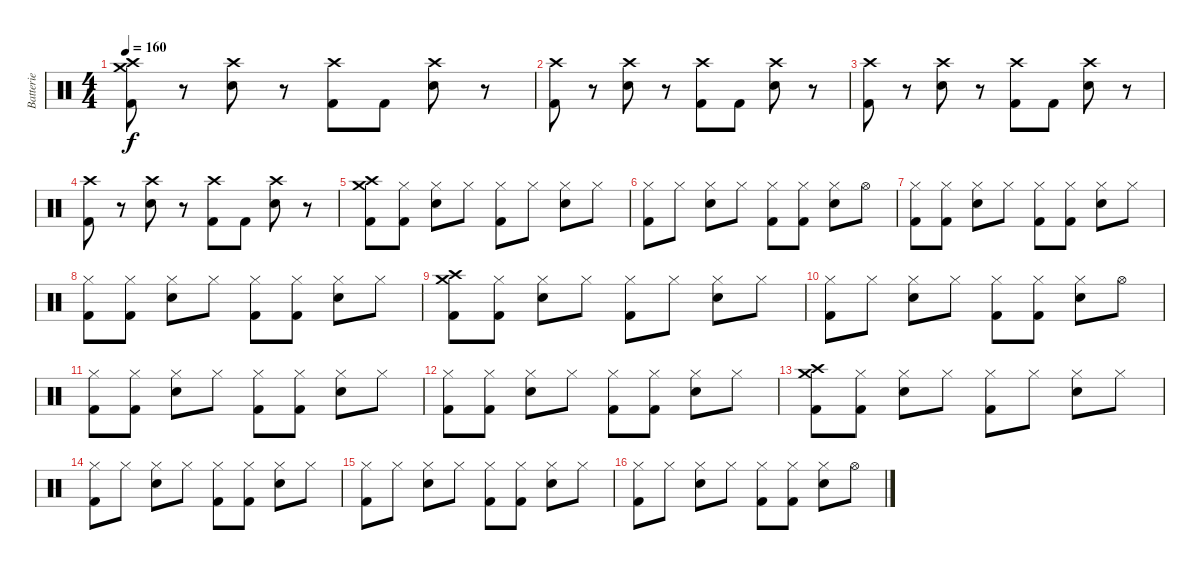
\track ("Batterie" "Batterie") {instrument percussion}
\staff {score}
\articulation defaults
\ts (4 4)
\tempo 160
\clef neutral
\ks c
("Crash high (hit)" "Crash medium (hit)" "Kick (hit) 2").8{dy f} r.8 ("Crash high (hit)" "Snare (hit) 2").8 r.8 ("Crash high (hit)" "Kick (hit) 2").8 "Kick (hit) 2".8 ("Crash high (hit)" "Snare (hit) 2").8 r.8 |
("Crash high (hit)" "Kick (hit) 2").8 r.8 ("Crash high (hit)" "Snare (hit) 2").8 r.8 ("Crash high (hit)" "Kick (hit) 2").8 "Kick (hit) 2".8 ("Crash high (hit)" "Snare (hit) 2").8 r.8 |
("Crash high (hit)" "Kick (hit) 2").8 r.8 ("Crash high (hit)" "Snare (hit) 2").8 r.8 ("Crash high (hit)" "Kick (hit) 2").8 "Kick (hit) 2".8 ("Crash high (hit)" "Snare (hit) 2").8 r.8 |
("Crash high (hit)" "Kick (hit) 2").8 r.8 ("Crash high (hit)" "Snare (hit) 2").8 r.8 ("Crash high (hit)" "Kick (hit) 2").8 "Kick (hit) 2".8 ("Crash high (hit)" "Snare (hit) 2").8 r.8 |
("Crash high (hit)" "Crash medium (hit)" "Kick (hit) 2").8 ("Hi-Hat (closed)" "Kick (hit) 2").8 ("Hi-Hat (closed)" "Snare (hit) 2").8 "Hi-Hat (closed)".8 ("Hi-Hat (closed)" "Kick (hit) 2").8 "Hi-Hat (closed)".8 ("Hi-Hat (closed)" "Snare (hit) 2").8 "Hi-Hat (closed)".8 |
("Hi-Hat (closed)" "Kick (hit) 2").8 "Hi-Hat (closed)".8 ("Hi-Hat (closed)" "Snare (hit) 2").8 "Hi-Hat (closed)".8 ("Hi-Hat (closed)" "Kick (hit) 2").8 ("Hi-Hat (closed)" "Kick (hit) 2").8 ("Hi-Hat (closed)" "Snare (hit) 2").8 "Hi-Hat (open)".8 |
("Hi-Hat (closed)" "Kick (hit) 2").8 ("Hi-Hat (closed)" "Kick (hit) 2").8 ("Hi-Hat (closed)" "Snare (hit) 2").8 "Hi-Hat (closed)".8 ("Hi-Hat (closed)" "Kick (hit) 2").8 ("Hi-Hat (closed)" "Kick (hit) 2").8 ("Hi-Hat (closed)" "Snare (hit) 2").8 "Hi-Hat (closed)".8 |
("Hi-Hat (closed)" "Kick (hit) 2").8 ("Hi-Hat (closed)" "Kick (hit) 2").8 ("Hi-Hat (closed)" "Snare (hit) 2").8 "Hi-Hat (closed)".8 ("Hi-Hat (closed)" "Kick (hit) 2").8 ("Hi-Hat (closed)" "Kick (hit) 2").8 ("Hi-Hat (closed)" "Snare (hit) 2").8 "Hi-Hat (closed)".8 |
("Crash high (hit)" "Crash medium (hit)" "Kick (hit) 2").8 ("Hi-Hat (closed)" "Kick (hit) 2").8 ("Hi-Hat (closed)" "Snare (hit) 2").8 "Hi-Hat (closed)".8 ("Hi-Hat (closed)" "Kick (hit) 2").8 "Hi-Hat (closed)".8 ("Hi-Hat (closed)" "Snare (hit) 2").8 "Hi-Hat (closed)".8 |
("Hi-Hat (closed)" "Kick (hit) 2").8 "Hi-Hat (closed)".8 ("Hi-Hat (closed)" "Snare (hit) 2").8 "Hi-Hat (closed)".8 ("Hi-Hat (closed)" "Kick (hit) 2").8 ("Hi-Hat (closed)" "Kick (hit) 2").8 ("Hi-Hat (closed)" "Snare (hit) 2").8 "Hi-Hat (open)".8 |
("Hi-Hat (closed)" "Kick (hit) 2").8 ("Hi-Hat (closed)" "Kick (hit) 2").8 ("Hi-Hat (closed)" "Snare (hit) 2").8 "Hi-Hat (closed)".8 ("Hi-Hat (closed)" "Kick (hit) 2").8 ("Hi-Hat (closed)" "Kick (hit) 2").8 ("Hi-Hat (closed)" "Snare (hit) 2").8 "Hi-Hat (closed)".8 |
("Hi-Hat (closed)" "Kick (hit) 2").8 ("Hi-Hat (closed)" "Kick (hit) 2").8 ("Hi-Hat (closed)" "Snare (hit) 2").8 "Hi-Hat (closed)".8 ("Hi-Hat (closed)" "Kick (hit) 2").8 ("Hi-Hat (closed)" "Kick (hit) 2").8 ("Hi-Hat (closed)" "Snare (hit) 2").8 "Hi-Hat (closed)".8 |
("Crash high (hit)" "Crash medium (hit)" "Kick (hit) 2").8 ("Hi-Hat (closed)" "Kick (hit) 2").8 ("Hi-Hat (closed)" "Snare (hit) 2").8 "Hi-Hat (closed)".8 ("Hi-Hat (closed)" "Kick (hit) 2").8 "Hi-Hat (closed)".8 ("Hi-Hat (closed)" "Snare (hit) 2").8 "Hi-Hat (closed)".8 |
("Hi-Hat (closed)" "Kick (hit) 2").8 "Hi-Hat (closed)".8 ("Hi-Hat (closed)" "Snare (hit) 2").8 "Hi-Hat (closed)".8 ("Hi-Hat (closed)" "Kick (hit) 2").8 ("Hi-Hat (closed)" "Kick (hit) 2").8 ("Hi-Hat (closed)" "Snare (hit) 2").8 "Hi-Hat (closed)".8 |
("Hi-Hat (closed)" "Kick (hit) 2").8 "Hi-Hat (closed)".8 ("Hi-Hat (closed)" "Snare (hit) 2").8 "Hi-Hat (closed)".8 ("Hi-Hat (closed)" "Kick (hit) 2").8 ("Hi-Hat (closed)" "Kick (hit) 2").8 ("Hi-Hat (closed)" "Snare (hit) 2").8 "Hi-Hat (closed)".8 |
("Hi-Hat (closed)" "Kick (hit) 2").8 "Hi-Hat (closed)".8 ("Hi-Hat (closed)" "Snare (hit) 2").8 "Hi-Hat (closed)".8 ("Hi-Hat (closed)" "Kick (hit) 2").8 ("Hi-Hat (closed)" "Kick (hit) 2").8 ("Hi-Hat (closed)" "Snare (hit) 2").8 "Hi-Hat (open)".8
